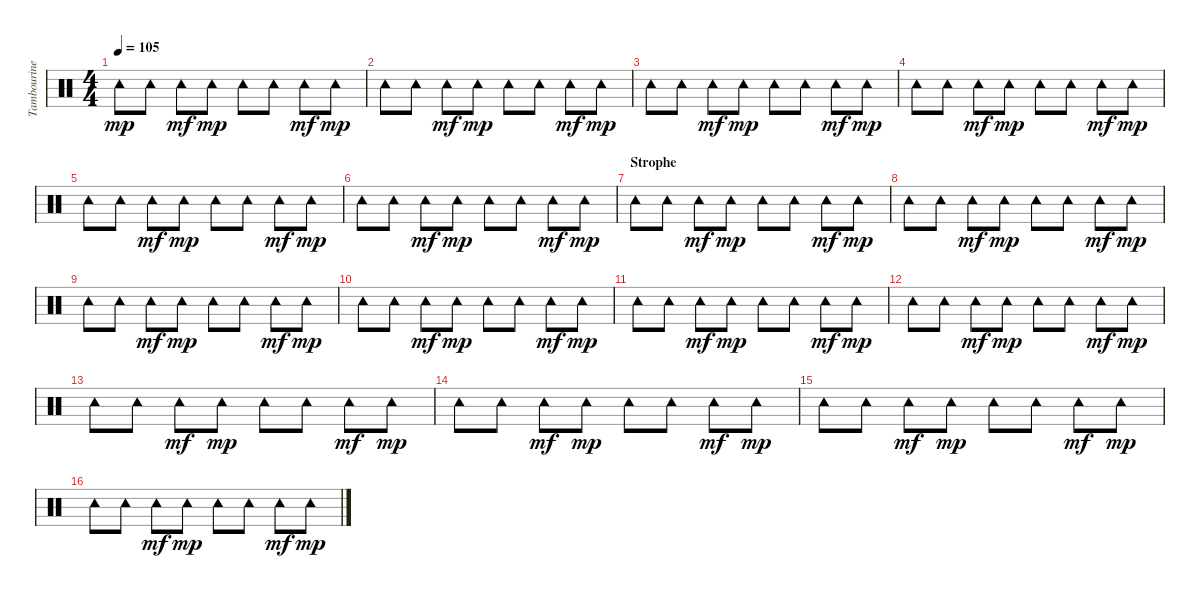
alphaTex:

\track ("Tambourine" "Tambourine") {instrument percussion}
\staff {score}
\articulation defaults
\ts (4 4)
\tempo 105
\clef neutral
\ks c "Tambourine (hit)".8{dy mp} "Tambourine (hit)".8 "Tambourine (hit)".8{dy mf} "Tambourine (hit)".8{dy mp} "Tambourine (hit)".8 "Tambourine (hit)".8 "Tambourine (hit)".8{dy mf} "Tambourine (hit)".8{dy mp}
|
"Tambourine (hit)".8 "Tambourine (hit)".8 "Tambourine (hit)".8{dy mf} "Tambourine (hit)".8{dy mp} "Tambourine (hit)".8 "Tambourine (hit)".8 "Tambourine (hit)".8{dy mf} "Tambourine (hit)".8{dy mp} |
"Tambourine (hit)".8 "Tambourine (hit)".8 "Tambourine (hit)".8{dy mf} "Tambourine (hit)".8{dy mp} "Tambourine (hit)".8 "Tambourine (hit)".8 "Tambourine (hit)".8{dy mf} "Tambourine (hit)".8{dy mp} |
"Tambourine (hit)".8 "Tambourine (hit)".8 "Tambourine (hit)".8{dy mf} "Tambourine (hit)".8{dy mp} "Tambourine (hit)".8 "Tambourine (hit)".8 "Tambourine (hit)".8{dy mf} "Tambourine (hit)".8{dy mp} |
"Tambourine (hit)".8{volume 0} "Tambourine (hit)".8 "Tambourine (hit)".8{dy mf} "Tambourine (hit)".8{dy mp} "Tambourine (hit)".8 "Tambourine (hit)".8 "Tambourine (hit)".8{dy mf} "Tambourine (hit)".8{dy mp} |
"Tambourine (hit)".8 "Tambourine (hit)".8 "Tambourine (hit)".8{dy mf} "Tambourine (hit)".8{dy mp} "Tambourine (hit)".8 "Tambourine (hit)".8 "Tambourine (hit)".8{dy mf} "Tambourine (hit)".8{dy mp} |
\section ("" "Strophe")
"Tambourine (hit)".8{volume 14} "Tambourine (hit)".8 "Tambourine (hit)".8{dy mf} "Tambourine (hit)".8{dy mp} "Tambourine (hit)".8 "Tambourine (hit)".8 "Tambourine (hit)".8{dy mf} "Tambourine (hit)".8{dy mp} |
"Tambourine (hit)".8 "Tambourine (hit)".8 "Tambourine (hit)".8{dy mf} "Tambourine (hit)".8{dy mp} "Tambourine (hit)".8 "Tambourine (hit)".8 "Tambourine (hit)".8{dy mf} "Tambourine (hit)".8{dy mp} |
"Tambourine (hit)".8 "Tambourine (hit)".8 "Tambourine (hit)".8{dy mf} "Tambourine (hit)".8{dy mp} "Tambourine (hit)".8 "Tambourine (hit)".8 "Tambourine (hit)".8{dy mf} "Tambourine (hit)".8{dy mp} |
"Tambourine (hit)".8 "Tambourine (hit)".8 "Tambourine (hit)".8{dy mf} "Tambourine (hit)".8{dy mp} "Tambourine (hit)".8 "Tambourine (hit)".8 "Tambourine (hit)".8{dy mf} "Tambourine (hit)".8{dy mp} |
"Tambourine (hit)".8 "Tambourine (hit)".8 "Tambourine (hit)".8{dy mf} "Tambourine (hit)".8{dy mp} "Tambourine (hit)".8 "Tambourine (hit)".8 "Tambourine (hit)".8{dy mf} "Tambourine (hit)".8{dy mp} |
"Tambourine (hit)".8 "Tambourine (hit)".8 "Tambourine (hit)".8{dy mf} "Tambourine (hit)".8{dy mp} "Tambourine (hit)".8 "Tambourine (hit)".8 "Tambourine (hit)".8{dy mf} "Tambourine (hit)".8{dy mp} |
"Tambourine (hit)".8 "Tambourine (hit)".8 "Tambourine (hit)".8{dy mf} "Tambourine (hit)".8{dy mp} "Tambourine (hit)".8 "Tambourine (hit)".8 "Tambourine (hit)".8{dy mf} "Tambourine (hit)".8{dy mp} |
"Tambourine (hit)".8 "Tambourine (hit)".8 "Tambourine (hit)".8{dy mf} "Tambourine (hit)".8{dy mp} "Tambourine (hit)".8 "Tambourine (hit)".8 "Tambourine (hit)".8{dy mf} "Tambourine (hit)".8{dy mp} |
"Tambourine (hit)".8 "Tambourine (hit)".8 "Tambourine (hit)".8{dy mf} "Tambourine (hit)".8{dy mp} "Tambourine (hit)".8 "Tambourine (hit)".8 "Tambourine (hit)".8{dy mf} "Tambourine (hit)".8{dy mp} |
"Tambourine (hit)".8 "Tambourine (hit)".8 "Tambourine (hit)".8{dy mf} "Tambourine (hit)".8{dy mp} "Tambourine (hit)".8 "Tambourine (hit)".8 "Tambourine (hit)".8{dy mf} "Tambourine (hit)".8{dy mp}
